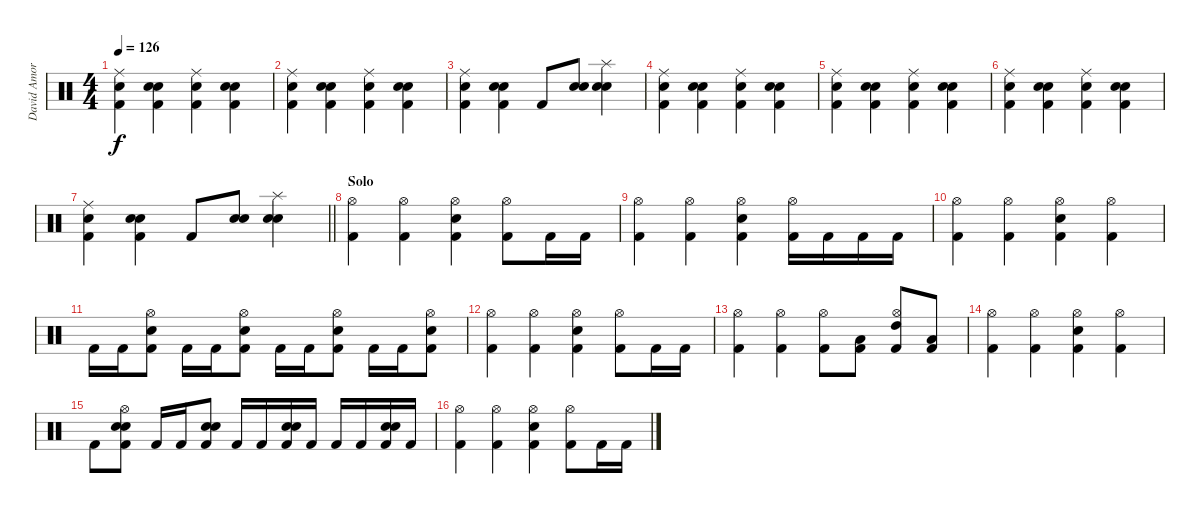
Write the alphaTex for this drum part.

\track ("David Amore" "David Amor") {instrument percussion}
\staff {score}
\articulation defaults
\ts (4 4)
\tempo 126
\clef neutral
\ks c
("Ride (middle)" "Electric Snare (hit)" "Kick (hit) 2").4{dy f} ("Electric Snare (hit)" "Snare (hit) 2" "Kick (hit) 2").4 ("Ride (middle)" "Electric Snare (hit)" "Kick (hit) 2").4 ("Snare (hit) 2" "Electric Snare (hit)" "Kick (hit) 2").4 |
("Ride (middle)" "Electric Snare (hit)" "Kick (hit) 2").4 ("Electric Snare (hit)" "Snare (hit) 2" "Kick (hit) 2").4 ("Ride (middle)" "Electric Snare (hit)" "Kick (hit) 2").4 ("Snare (hit) 2" "Electric Snare (hit)" "Kick (hit) 2").4 |
("Ride (middle)" "Electric Snare (hit)" "Kick (hit) 2").4 ("Snare (hit) 2" "Electric Snare (hit)" "Kick (hit) 2").4 "Kick (hit) 2".8 ("Snare (hit) 2" "Electric Snare (hit)").8 ("Splash (hit)" "Snare (hit) 2" "Electric Snare (hit)").4 |
("Ride (middle)" "Electric Snare (hit)" "Kick (hit) 2").4 ("Electric Snare (hit)" "Snare (hit) 2" "Kick (hit) 2").4 ("Ride (middle)" "Electric Snare (hit)" "Kick (hit) 2").4 ("Snare (hit) 2" "Electric Snare (hit)" "Kick (hit) 2").4 |
("Ride (middle)" "Electric Snare (hit)" "Kick (hit) 2").4 ("Electric Snare (hit)" "Snare (hit) 2" "Kick (hit) 2").4 ("Ride (middle)" "Electric Snare (hit)" "Kick (hit) 2").4 ("Snare (hit) 2" "Electric Snare (hit)" "Kick (hit) 2").4 |
("Ride (middle)" "Electric Snare (hit)" "Kick (hit) 2").4 ("Electric Snare (hit)" "Snare (hit) 2" "Kick (hit) 2").4 ("Ride (middle)" "Electric Snare (hit)" "Kick (hit) 2").4 ("Snare (hit) 2" "Electric Snare (hit)" "Kick (hit) 2").4 |
\barLineRight lightlight
("Ride (middle)" "Electric Snare (hit)" "Kick (hit) 2").4 ("Snare (hit) 2" "Electric Snare (hit)" "Kick (hit) 2").4 "Kick (hit) 2".8 ("Snare (hit) 2" "Electric Snare (hit)").8 ("Splash (hit)" "Snare (hit) 2" "Electric Snare (hit)").4 |
\section ("" "Solo")
("Hi-Hat (open)" "Kick (hit) 2").4 ("Hi-Hat (open)" "Kick (hit) 2").4 ("Hi-Hat (open)" "Snare (hit) 2" "Kick (hit) 2").4 ("Hi-Hat (open)" "Kick (hit) 2").8 "Kick (hit) 2".16 "Kick (hit) 2".16 |
("Hi-Hat (open)" "Kick (hit) 2").4 ("Hi-Hat (open)" "Kick (hit) 2").4 ("Hi-Hat (open)" "Snare (hit) 2" "Kick (hit) 2").4 ("Hi-Hat (open)" "Kick (hit) 2").16 "Kick (hit) 2".16 "Kick (hit) 2".16 "Kick (hit) 2".16 |
("Hi-Hat (open)" "Kick (hit) 2").4 ("Hi-Hat (open)" "Kick (hit) 2").4 ("Hi-Hat (open)" "Snare (hit) 2" "Kick (hit) 2").4 ("Hi-Hat (open)" "Kick (hit) 2").4 |
"Kick (hit) 2".16 "Kick (hit) 2".16 ("Hi-Hat (open)" "Electric Snare (hit)" "Kick (hit) 2").8 "Kick (hit) 2".16 "Kick (hit) 2".16 ("Hi-Hat (open)" "Electric Snare (hit)" "Kick (hit) 2").8 "Kick (hit) 2".16 "Kick (hit) 2".16 ("Hi-Hat (open)" "Electric Snare (hit)" "Kick (hit) 2").8 "Kick (hit) 2".16 "Kick (hit) 2".16 ("Hi-Hat (open)" "Electric Snare (hit)" "Kick (hit) 2").8 |
("Hi-Hat (open)" "Kick (hit) 2").4 ("Hi-Hat (open)" "Kick (hit) 2").4 ("Hi-Hat (open)" "Snare (hit) 2" "Kick (hit) 2").4 ("Hi-Hat (open)" "Kick (hit) 2").8 "Kick (hit) 2".16 "Kick (hit) 2".16 |
("Hi-Hat (open)" "Kick (hit) 2").4 ("Hi-Hat (open)" "Kick (hit) 2").4 ("Hi-Hat (open)" "Kick (hit) 2").8 ("Low Floor Tom (hit)" "Kick (hit) 2").8 ("Hi-Hat (open)" "High Tom (hit)" "Kick (hit) 2").8 ("Low Floor Tom (hit)" "Kick (hit) 2").8 |
("Hi-Hat (open)" "Kick (hit) 2").4 ("Hi-Hat (open)" "Kick (hit) 2").4 ("Hi-Hat (open)" "Snare (hit) 2" "Kick (hit) 2").4 ("Hi-Hat (open)" "Kick (hit) 2").4 |
"Kick (hit) 2".8 ("Hi-Hat (open)" "Snare (hit) 2" "Electric Snare (hit)" "Kick (hit) 2").8 "Kick (hit) 2".16 "Kick (hit) 2".16 ("Electric Snare (hit)" "Snare (hit) 2" "Kick (hit) 2").8 "Kick (hit) 2".16 "Kick (hit) 2".16 ("Electric Snare (hit)" "Snare (hit) 2" "Kick (hit) 2").16 "Kick (hit) 2".16 "Kick (hit) 2".16 "Kick (hit) 2".16 ("Electric Snare (hit)" "Snare (hit) 2" "Kick (hit) 2").16 "Kick (hit) 2".16 |
("Hi-Hat (open)" "Kick (hit) 2").4 ("Hi-Hat (open)" "Kick (hit) 2").4 ("Hi-Hat (open)" "Snare (hit) 2" "Kick (hit) 2").4 ("Hi-Hat (open)" "Kick (hit) 2").8 "Kick (hit) 2".16 "Kick (hit) 2".16
